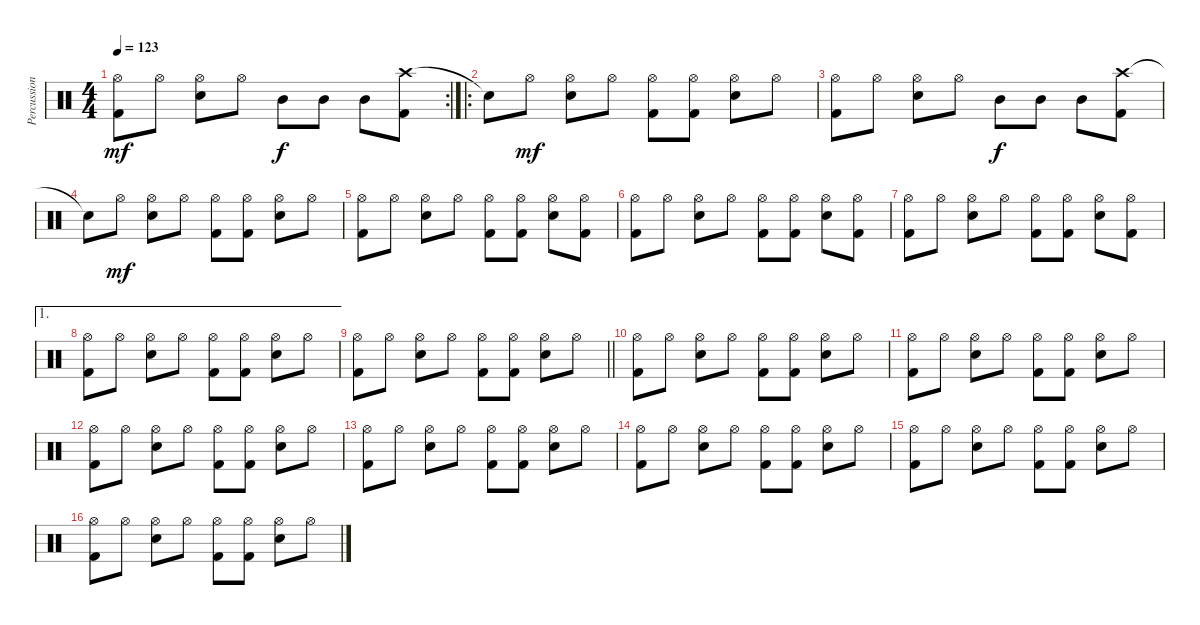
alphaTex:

\track ("Percussion" "Percussion") {instrument percussion}
\staff {score}
\articulation defaults
\rc 2
\ts (4 4)
\tempo 123
\clef neutral
\ks c
("Hi-Hat (open)" "Kick (hit) 2").8{dy mf} "Hi-Hat (open)".8 ("Hi-Hat (open)" "Snare (hit) 2").8 "Hi-Hat (open)".8 "Mid Tom (hit)".8{dy f} "Mid Tom (hit)".8 "Mid Tom (hit)".8 ("Crash high (hit)" "Kick (hit) 2").8 |
\ro "Snare (hit)"{t}.8 "Hi-Hat (open)".8{dy mf}
("Hi-Hat (open)" "Snare (hit) 2").8 "Hi-Hat (open)".8 ("Hi-Hat (open)" "Kick (hit) 2").8 ("Hi-Hat (open)" "Kick (hit) 2").8 ("Hi-Hat (open)" "Snare (hit) 2").8 "Hi-Hat (open)".8 |
("Hi-Hat (open)" "Kick (hit) 2").8 "Hi-Hat (open)".8 ("Hi-Hat (open)" "Snare (hit) 2").8 "Hi-Hat (open)".8 "Mid Tom (hit)".8{dy f} "Mid Tom (hit)".8 "Mid Tom (hit)".8 ("Crash high (hit)" "Kick (hit) 2").8 |
"Snare (hit)"{t}.8 "Hi-Hat (open)".8{dy mf} ("Hi-Hat (open)" "Snare (hit) 2").8 "Hi-Hat (open)".8 ("Hi-Hat (open)" "Kick (hit) 2").8 ("Hi-Hat (open)" "Kick (hit) 2").8 ("Hi-Hat (open)" "Snare (hit) 2").8 "Hi-Hat (open)".8 |
("Hi-Hat (open)" "Kick (hit) 2").8 "Hi-Hat (open)".8 ("Hi-Hat (open)" "Snare (hit) 2").8 "Hi-Hat (open)".8 ("Hi-Hat (open)" "Kick (hit) 2").8 ("Hi-Hat (open)" "Kick (hit) 2").8 ("Hi-Hat (open)" "Snare (hit) 2").8 ("Hi-Hat (open)" "Kick (hit) 2").8 |
("Hi-Hat (open)" "Kick (hit) 2").8 "Hi-Hat (open)".8 ("Hi-Hat (open)" "Snare (hit) 2").8 "Hi-Hat (open)".8 ("Hi-Hat (open)" "Kick (hit) 2").8 ("Hi-Hat (open)" "Kick (hit) 2").8 ("Hi-Hat (open)" "Snare (hit) 2").8 ("Hi-Hat (open)" "Kick (hit) 2").8 |
("Hi-Hat (open)" "Kick (hit) 2").8 "Hi-Hat (open)".8 ("Hi-Hat (open)" "Snare (hit) 2").8 "Hi-Hat (open)".8 ("Hi-Hat (open)" "Kick (hit) 2").8 ("Hi-Hat (open)" "Kick (hit) 2").8 ("Hi-Hat (open)" "Snare (hit) 2").8 ("Hi-Hat (open)" "Kick (hit) 2").8 |
\ae 1
("Hi-Hat (open)" "Kick (hit) 2").8 "Hi-Hat (open)".8 ("Hi-Hat (open)" "Snare (hit) 2").8 "Hi-Hat (open)".8 ("Hi-Hat (open)" "Kick (hit) 2").8 ("Hi-Hat (open)" "Kick (hit) 2").8 ("Hi-Hat (open)" "Snare (hit) 2").8 "Hi-Hat (open)".8 |
\barLineRight lightlight
("Hi-Hat (open)" "Kick (hit) 2").8 "Hi-Hat (open)".8 ("Hi-Hat (open)" "Snare (hit) 2").8 "Hi-Hat (open)".8 ("Hi-Hat (open)" "Kick (hit) 2").8 ("Hi-Hat (open)" "Kick (hit) 2").8 ("Hi-Hat (open)" "Snare (hit) 2").8 "Hi-Hat (open)".8 |
("Hi-Hat (open)" "Kick (hit) 2").8 "Hi-Hat (open)".8 ("Hi-Hat (open)" "Snare (hit) 2").8 "Hi-Hat (open)".8 ("Hi-Hat (open)" "Kick (hit) 2").8 ("Hi-Hat (open)" "Kick (hit) 2").8 ("Hi-Hat (open)" "Snare (hit) 2").8 "Hi-Hat (open)".8 |
("Hi-Hat (open)" "Kick (hit) 2").8 "Hi-Hat (open)".8 ("Hi-Hat (open)" "Snare (hit) 2").8 "Hi-Hat (open)".8 ("Hi-Hat (open)" "Kick (hit) 2").8 ("Hi-Hat (open)" "Kick (hit) 2").8 ("Hi-Hat (open)" "Snare (hit) 2").8 "Hi-Hat (open)".8 |
("Hi-Hat (open)" "Kick (hit) 2").8 "Hi-Hat (open)".8 ("Hi-Hat (open)" "Snare (hit) 2").8 "Hi-Hat (open)".8 ("Hi-Hat (open)" "Kick (hit) 2").8 ("Hi-Hat (open)" "Kick (hit) 2").8 ("Hi-Hat (open)" "Snare (hit) 2").8 "Hi-Hat (open)".8 |
("Hi-Hat (open)" "Kick (hit) 2").8 "Hi-Hat (open)".8 ("Hi-Hat (open)" "Snare (hit) 2").8 "Hi-Hat (open)".8 ("Hi-Hat (open)" "Kick (hit) 2").8 ("Hi-Hat (open)" "Kick (hit) 2").8 ("Hi-Hat (open)" "Snare (hit) 2").8 "Hi-Hat (open)".8 |
("Hi-Hat (open)" "Kick (hit) 2").8 "Hi-Hat (open)".8 ("Hi-Hat (open)" "Snare (hit) 2").8 "Hi-Hat (open)".8 ("Hi-Hat (open)" "Kick (hit) 2").8 ("Hi-Hat (open)" "Kick (hit) 2").8 ("Hi-Hat (open)" "Snare (hit) 2").8 "Hi-Hat (open)".8 |
("Hi-Hat (open)" "Kick (hit) 2").8 "Hi-Hat (open)".8 ("Hi-Hat (open)" "Snare (hit) 2").8 "Hi-Hat (open)".8 ("Hi-Hat (open)" "Kick (hit) 2").8 ("Hi-Hat (open)" "Kick (hit) 2").8 ("Hi-Hat (open)" "Snare (hit) 2").8 "Hi-Hat (open)".8 |
("Hi-Hat (open)" "Kick (hit) 2").8 "Hi-Hat (open)".8 ("Hi-Hat (open)" "Snare (hit) 2").8 "Hi-Hat (open)".8 ("Hi-Hat (open)" "Kick (hit) 2").8 ("Hi-Hat (open)" "Kick (hit) 2").8 ("Hi-Hat (open)" "Snare (hit) 2").8 "Hi-Hat (open)".8
